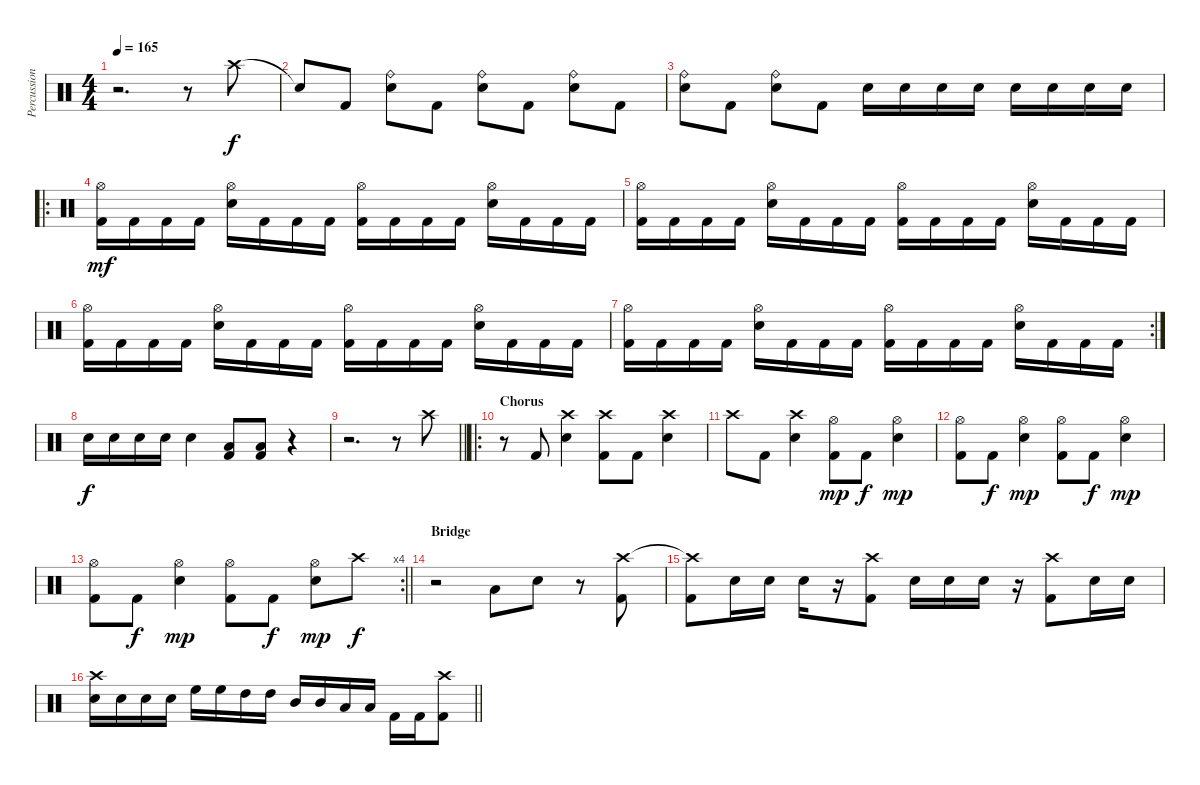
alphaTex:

\track ("Percussion" "Percussion") {instrument percussion}
\staff {score}
\articulation defaults
\ts (4 4)
\tempo 165
\clef neutral
\ks c
r.2{d dy f} r.8 "Crash high (hit)".8 |
"Snare (hit)"{t}.8 "Kick (hit) 2".8 ("Ride (bell)" "Electric Snare (hit)").8 "Kick (hit) 2".8 ("Ride (bell)" "Electric Snare (hit)").8 "Kick (hit) 2".8 ("Ride (bell)" "Electric Snare (hit)").8 "Kick (hit) 2".8 |
("Ride (bell)" "Electric Snare (hit)").8 "Kick (hit) 2".8 ("Ride (bell)" "Electric Snare (hit)").8 "Kick (hit) 2".8 "Electric Snare (hit)".16 "Electric Snare (hit)".16 "Electric Snare (hit)".16 "Electric Snare (hit)".16 "Electric Snare (hit)".16 "Electric Snare (hit)".16 "Electric Snare (hit)".16 "Electric Snare (hit)".16 |
\ro
("Hi-Hat (open)" "Kick (hit) 2").16{dy mf} "Kick (hit) 2".16 "Kick (hit) 2".16 "Kick (hit) 2".16 ("Hi-Hat (open)" "Electric Snare (hit)").16 "Kick (hit) 2".16 "Kick (hit) 2".16 "Kick (hit) 2".16 ("Hi-Hat (open)" "Kick (hit) 2").16 "Kick (hit) 2".16 "Kick (hit) 2".16 "Kick (hit) 2".16 ("Hi-Hat (open)" "Electric Snare (hit)").16 "Kick (hit) 2".16 "Kick (hit) 2".16 "Kick (hit) 2".16 |
("Hi-Hat (open)" "Kick (hit) 2").16 "Kick (hit) 2".16 "Kick (hit) 2".16 "Kick (hit) 2".16 ("Hi-Hat (open)" "Electric Snare (hit)").16 "Kick (hit) 2".16 "Kick (hit) 2".16 "Kick (hit) 2".16 ("Hi-Hat (open)" "Kick (hit) 2").16 "Kick (hit) 2".16 "Kick (hit) 2".16 "Kick (hit) 2".16 ("Hi-Hat (open)" "Electric Snare (hit)").16 "Kick (hit) 2".16 "Kick (hit) 2".16 "Kick (hit) 2".16 |
("Hi-Hat (open)" "Kick (hit) 2").16 "Kick (hit) 2".16 "Kick (hit) 2".16 "Kick (hit) 2".16 ("Hi-Hat (open)" "Electric Snare (hit)").16 "Kick (hit) 2".16 "Kick (hit) 2".16 "Kick (hit) 2".16 ("Hi-Hat (open)" "Kick (hit) 2").16 "Kick (hit) 2".16 "Kick (hit) 2".16 "Kick (hit) 2".16 ("Hi-Hat (open)" "Electric Snare (hit)").16 "Kick (hit) 2".16 "Kick (hit) 2".16 "Kick (hit) 2".16 |
\rc 2
("Hi-Hat (open)" "Kick (hit) 2").16 "Kick (hit) 2".16 "Kick (hit) 2".16 "Kick (hit) 2".16 ("Hi-Hat (open)" "Electric Snare (hit)").16 "Kick (hit) 2".16 "Kick (hit) 2".16 "Kick (hit) 2".16 ("Hi-Hat (open)" "Kick (hit) 2").16 "Kick (hit) 2".16 "Kick (hit) 2".16 "Kick (hit) 2".16 ("Hi-Hat (open)" "Electric Snare (hit)").16 "Kick (hit) 2".16 "Kick (hit) 2".16 "Kick (hit) 2".16 |
"Electric Snare (hit)".16{dy f} "Electric Snare (hit)".16 "Electric Snare (hit)".16 "Electric Snare (hit)".16 "Electric Snare (hit)".4 ("Low Tom (hit)" "Kick (hit) 2").8 ("Low Tom (hit)" "Kick (hit) 2").8 r.4 |
\barLineRight lightlight
r.2{d} r.8 "Crash high (hit)".8 |
\ro
\section ("" "Chorus")
r.8 "Kick (hit) 2".8 ("Crash high (hit)" "Electric Snare (hit)").4 ("Crash high (hit)" "Kick (hit) 2").8 "Kick (hit) 2".8 ("Crash high (hit)" "Electric Snare (hit)").4 |
"Crash high (hit)".8 "Kick (hit) 2".8 ("Crash high (hit)" "Electric Snare (hit)").4 ("Hi-Hat (open)" "Kick (hit) 2").8{dy mp} "Kick (hit) 2".8{dy f} ("Hi-Hat (open)" "Electric Snare (hit)").4{dy mp} |
("Hi-Hat (open)" "Kick (hit) 2").8 "Kick (hit) 2".8{dy f} ("Hi-Hat (open)" "Electric Snare (hit)").4{dy mp} ("Hi-Hat (open)" "Kick (hit) 2").8 "Kick (hit) 2".8{dy f} ("Hi-Hat (open)" "Electric Snare (hit)").4{dy mp} |
\rc 4
\barLineRight lightlight
("Hi-Hat (open)" "Kick (hit) 2").8 "Kick (hit) 2".8{dy f} ("Hi-Hat (open)" "Electric Snare (hit)").4{dy mp} ("Hi-Hat (open)" "Kick (hit) 2").8 "Kick (hit) 2".8{dy f} ("Hi-Hat (open)" "Electric Snare (hit)").8{dy mp} "Crash high (hit)".8{dy f} |
\section ("" "Bridge")
r.2 "Low Tom (hit)".8 "Electric Snare (hit)".8 r.8 ("Crash high (hit)" "Kick (hit) 2").8 |
("Crash high (hit)"{t} "Kick (hit) 2").8 "Electric Snare (hit)".16 "Electric Snare (hit)".16 "Electric Snare (hit)".16 r.16 ("Crash high (hit)" "Kick (hit) 2").8 "Electric Snare (hit)".16 "Electric Snare (hit)".16 "Electric Snare (hit)".16 r.16 ("Crash high (hit)" "Kick (hit) 2").8 "Electric Snare (hit)".16 "Electric Snare (hit)".16 |
\barLineRight lightlight
("Crash high (hit)" "Electric Snare (hit)").16 "Electric Snare (hit)".16 "Electric Snare (hit)".16 "Electric Snare (hit)".16 "High Floor Tom (hit)".16 "High Floor Tom (hit)".16 "High Tom (hit)".16 "High Tom (hit)".16 "Mid Tom (hit)".16 "Mid Tom (hit)".16 "Low Tom (hit)".16 "Low Tom (hit)".16 "Kick (hit) 2".16 "Kick (hit) 2".16 ("Crash high (hit)" "Kick (hit) 2").8
